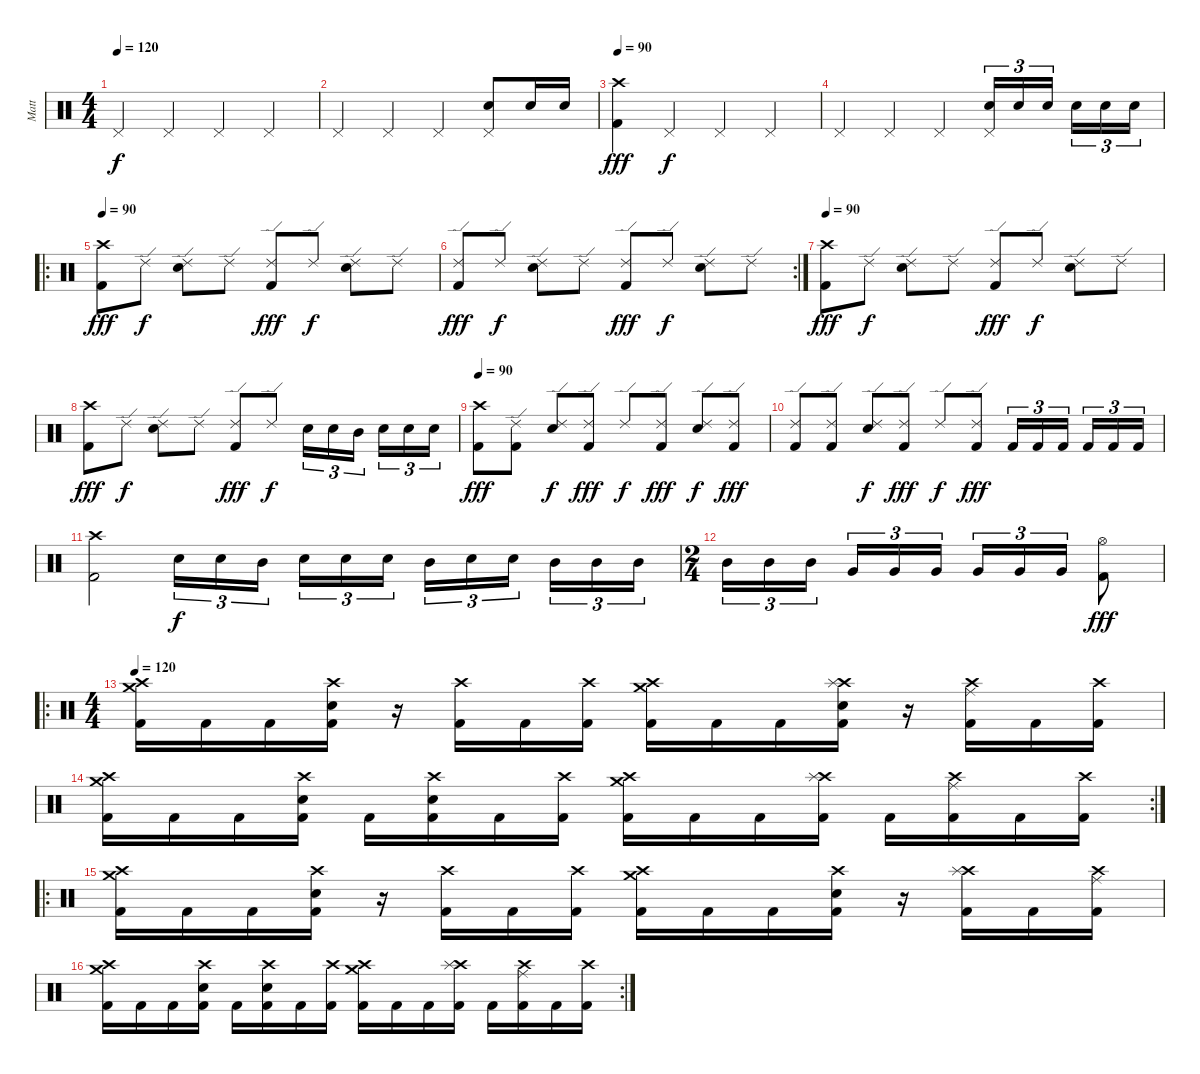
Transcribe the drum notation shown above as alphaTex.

\track ("Matt" "Matt") {instrument percussion}
\staff {score}
\articulation defaults
\ts (4 4)
\tempo 120
\tempo 90
\tempo 120
\clef neutral
\ks c "Pedal Hi-Hat (hit)".4{dy f} "Pedal Hi-Hat (hit)".4 "Pedal Hi-Hat (hit)".4 "Pedal Hi-Hat (hit)".4
|
"Pedal Hi-Hat (hit)".4 "Pedal Hi-Hat (hit)".4 "Pedal Hi-Hat (hit)".4 ("Pedal Hi-Hat (hit)" "Electric Snare (hit)").8 "Electric Snare (hit)".16 "Electric Snare (hit)".16 |
\tempo 90
("Crash high (hit)" "Kick (hit) 2").4{dy fff} "Pedal Hi-Hat (hit)".4{dy f} "Pedal Hi-Hat (hit)".4 "Pedal Hi-Hat (hit)".4 |
"Pedal Hi-Hat (hit)".4 "Pedal Hi-Hat (hit)".4 "Pedal Hi-Hat (hit)".4 ("Pedal Hi-Hat (hit)" "Electric Snare (hit)").16{tu (3 2)} "Electric Snare (hit)".16{tu (3 2)} "Electric Snare (hit)".16{tu (3 2)} "Electric Snare (hit)".16{tu (3 2)} "Electric Snare (hit)".16{tu (3 2)} "Electric Snare (hit)".16{tu (3 2)} |
\ro
\tempo 90
("Crash high (hit)" "Kick (hit) 2").8{dy fff} "Ride (edge) 2".8{dy f} ("Ride (edge) 2" "Electric Snare (hit)").8 "Ride (edge) 2".8 ("Ride (edge) 2" "Kick (hit) 2").8{dy fff} "Ride (edge) 2".8{dy f} ("Ride (edge) 2" "Electric Snare (hit)").8 "Ride (edge) 2".8 |
\rc 2
("Ride (edge) 2" "Kick (hit) 2").8{dy fff} "Ride (edge) 2".8{dy f} ("Ride (edge) 2" "Electric Snare (hit)").8 "Ride (edge) 2".8 ("Ride (edge) 2" "Kick (hit) 2").8{dy fff} "Ride (edge) 2".8{dy f} ("Ride (edge) 2" "Electric Snare (hit)").8 "Ride (edge) 2".8 |
\tempo 90
("Crash high (hit)" "Kick (hit) 2").8{dy fff} "Ride (edge) 2".8{dy f} ("Ride (edge) 2" "Electric Snare (hit)").8 "Ride (edge) 2".8 ("Ride (edge) 2" "Kick (hit) 2").8{dy fff} "Ride (edge) 2".8{dy f} ("Ride (edge) 2" "Electric Snare (hit)").8 "Ride (edge) 2".8 |
("Crash high (hit)" "Kick (hit) 2").8{dy fff} "Ride (edge) 2".8{dy f} ("Ride (edge) 2" "Electric Snare (hit)").8 "Ride (edge) 2".8 ("Ride (edge) 2" "Kick (hit) 2").8{dy fff} "Ride (edge) 2".8{dy f} "Electric Snare (hit)".16{tu (3 2)} "Electric Snare (hit)".16{tu (3 2)} "Mid Tom (hit)".16{tu (3 2)} "Electric Snare (hit)".16{tu (3 2)} "Electric Snare (hit)".16{tu (3 2)} "Electric Snare (hit)".16{tu (3 2)} |
\tempo 90
("Crash high (hit)" "Kick (hit) 2").8{dy fff} ("Ride (edge) 2" "Kick (hit) 2").8 ("Ride (edge) 2" "Electric Snare (hit)").8{dy f} ("Ride (edge) 2" "Kick (hit) 2").8{dy fff} "Ride (edge) 2".8{dy f} ("Ride (edge) 2" "Kick (hit) 2").8{dy fff} ("Ride (edge) 2" "Electric Snare (hit)").8{dy f} ("Ride (edge) 2" "Kick (hit) 2").8{dy fff} |
("Ride (edge) 2" "Kick (hit) 2").8 ("Ride (edge) 2" "Kick (hit) 2").8 ("Ride (edge) 2" "Electric Snare (hit)").8{dy f} ("Ride (edge) 2" "Kick (hit) 2").8{dy fff} "Ride (edge) 2".8{dy f} ("Ride (edge) 2" "Kick (hit) 2").8{dy fff} "Kick (hit) 2".16{tu (3 2)} "Kick (hit) 2".16{tu (3 2)} "Kick (hit) 2".16{tu (3 2)} "Kick (hit) 2".16{tu (3 2)} "Kick (hit) 2".16{tu (3 2)} "Kick (hit) 2".16{tu (3 2)} |
("Crash high (hit)" "Kick (hit) 2").2 "Electric Snare (hit)".16{tu (3 2) dy f} "Electric Snare (hit)".16{tu (3 2)} "Mid Tom (hit)".16{tu (3 2)} "Electric Snare (hit)".16{tu (3 2)} "Electric Snare (hit)".16{tu (3 2)} "Electric Snare (hit)".16{tu (3 2)} "Mid Tom (hit)".16{tu (3 2)} "Electric Snare (hit)".16{tu (3 2)} "Electric Snare (hit)".16{tu (3 2)} "Mid Tom (hit)".16{tu (3 2)} "Mid Tom (hit)".16{tu (3 2)} "Mid Tom (hit)".16{tu (3 2)} |
\ts (2 4)
"Mid Tom (hit)".16{tu (3 2)} "Mid Tom (hit)".16{tu (3 2)} "Mid Tom (hit)".16{tu (3 2)} "Very Low Tom (hit)".16{tu (3 2)} "Very Low Tom (hit)".16{tu (3 2)} "Very Low Tom (hit)".16{tu (3 2)} "Very Low Tom (hit)".16{tu (3 2)} "Very Low Tom (hit)".16{tu (3 2)} "Very Low Tom (hit)".16{tu (3 2)} ("Hi-Hat (open)" "Kick (hit) 2").8{dy fff} |
\ro
\ts (4 4)
\tempo 120
("Crash high (hit)" "Crash medium (hit)" "Kick (hit) 2").16 "Kick (hit) 2".16 "Kick (hit) 2".16 ("Crash high (hit)" "Electric Snare (hit)" "Kick (hit) 2").16 r.16 ("Crash high (hit)" "Kick (hit) 2").16 "Kick (hit) 2".16 ("Crash high (hit)" "Kick (hit) 2").16 ("Crash high (hit)" "Crash medium (hit)" "Kick (hit) 2").16 "Kick (hit) 2".16 "Kick (hit) 2".16 ("Crash high (hit)" "Splash (hit)" "Electric Snare (hit)" "Kick (hit) 2").16 r.16 ("Crash high (hit)" "Ride (middle)" "Kick (hit) 2").16 "Kick (hit) 2".16 ("Crash high (hit)" "Kick (hit) 2").16 |
\rc 2
("Crash high (hit)" "Crash medium (hit)" "Kick (hit) 2").16 "Kick (hit) 2".16 "Kick (hit) 2".16 ("Crash high (hit)" "Electric Snare (hit)" "Kick (hit) 2").16 "Kick (hit) 2".16 ("Crash high (hit)" "Electric Snare (hit)" "Kick (hit) 2").16 "Kick (hit) 2".16 ("Crash high (hit)" "Kick (hit) 2").16 ("Crash high (hit)" "Crash medium (hit)" "Kick (hit) 2").16 "Kick (hit) 2".16 "Kick (hit) 2".16 ("Crash high (hit)" "Splash (hit)" "Kick (hit) 2").16 "Kick (hit) 2".16 ("Crash high (hit)" "Ride (middle)" "Kick (hit) 2").16 "Kick (hit) 2".16 ("Crash high (hit)" "Kick (hit) 2").16 |
\ro
("Crash high (hit)" "Crash medium (hit)" "Kick (hit) 2").16 "Kick (hit) 2".16 "Kick (hit) 2".16 ("Crash high (hit)" "Electric Snare (hit)" "Kick (hit) 2").16 r.16 ("Crash high (hit)" "Kick (hit) 2").16 "Kick (hit) 2".16 ("Crash high (hit)" "Kick (hit) 2").16 ("Crash high (hit)" "Crash medium (hit)" "Kick (hit) 2").16 "Kick (hit) 2".16 "Kick (hit) 2".16 ("Crash high (hit)" "Electric Snare (hit)" "Kick (hit) 2").16 r.16 ("Crash high (hit)" "Splash (hit)" "Kick (hit) 2").16 "Kick (hit) 2".16 ("Crash high (hit)" "Ride (middle)" "Kick (hit) 2").16 |
\rc 2
("Crash high (hit)" "Crash medium (hit)" "Kick (hit) 2").16 "Kick (hit) 2".16 "Kick (hit) 2".16 ("Crash high (hit)" "Electric Snare (hit)" "Kick (hit) 2").16 "Kick (hit) 2".16 ("Crash high (hit)" "Electric Snare (hit)" "Kick (hit) 2").16 "Kick (hit) 2".16 ("Crash high (hit)" "Kick (hit) 2").16 ("Crash high (hit)" "Crash medium (hit)" "Kick (hit) 2").16 "Kick (hit) 2".16 "Kick (hit) 2".16 ("Crash high (hit)" "Splash (hit)" "Kick (hit) 2").16 "Kick (hit) 2".16 ("Crash high (hit)" "Ride (middle)" "Kick (hit) 2").16 "Kick (hit) 2".16 ("Crash high (hit)" "Kick (hit) 2").16
